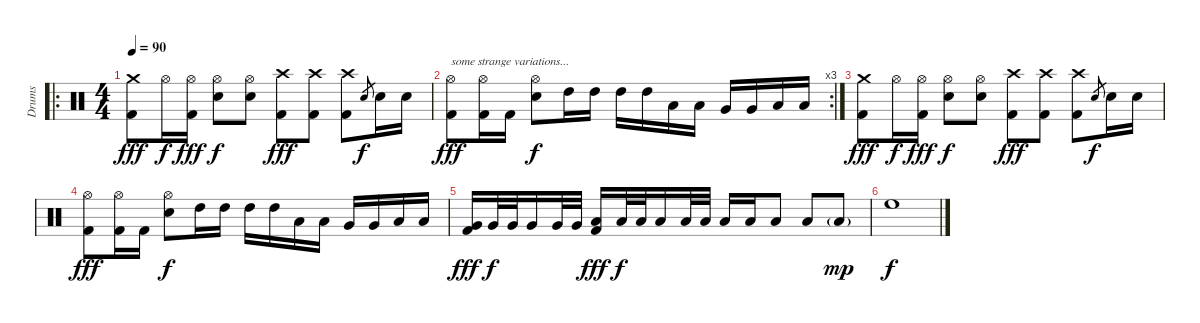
\track ("Drums" "Drums") {instrument percussion}
\staff {score}
\articulation defaults
\ro
\ts (4 4)
\tempo 90
\clef neutral
\ks c
("Crash medium (hit)" "Kick (hit) 2").8{dy fff} "Hi-Hat (open)".16{dy f} ("Hi-Hat (open)" "Kick (hit) 2").16{dy fff} ("Hi-Hat (open)" "Electric Snare (hit)").8{dy f} ("Hi-Hat (open)" "Electric Snare (hit)").8 ("Crash high (hit)" "Kick (hit) 2").8{dy fff} ("Crash high (hit)" "Kick (hit) 2").8 ("Crash high (hit)" "Kick (hit) 2").8 "Electric Snare (hit)".8{gr dy f} "Electric Snare (hit)".16 "Electric Snare (hit)".16 |
\rc 3
("Hi-Hat (open)" "Kick (hit) 2").8{txt "some strange variations..." dy fff} ("Hi-Hat (open)" "Kick (hit) 2").16 "Kick (hit) 2".16 ("Hi-Hat (open)" "Electric Snare (hit)").8{dy f} "High Tom (hit)".16 "High Tom (hit)".16 "High Tom (hit)".16 "High Tom (hit)".16 "Low Tom (hit)".16 "Low Tom (hit)".16 "Very Low Tom (hit)".16 "Very Low Tom (hit)".16 "Low Floor Tom (hit)".16 "Low Floor Tom (hit)".16 |
("Crash medium (hit)" "Kick (hit) 2").8{dy fff} "Hi-Hat (open)".16{dy f} ("Hi-Hat (open)" "Kick (hit) 2").16{dy fff} ("Hi-Hat (open)" "Electric Snare (hit)").8{dy f} ("Hi-Hat (open)" "Electric Snare (hit)").8 ("Crash high (hit)" "Kick (hit) 2").8{dy fff} ("Crash high (hit)" "Kick (hit) 2").8 ("Crash high (hit)" "Kick (hit) 2").8 "Electric Snare (hit)".8{gr dy f} "Electric Snare (hit)".16 "Electric Snare (hit)".16 |
("Hi-Hat (open)" "Kick (hit) 2").8{dy fff} ("Hi-Hat (open)" "Kick (hit) 2").16 "Kick (hit) 2".16 ("Hi-Hat (open)" "Electric Snare (hit)").8{dy f} "High Tom (hit)".16 "High Tom (hit)".16 "High Tom (hit)".16 "High Tom (hit)".16 "Low Tom (hit)".16 "Low Tom (hit)".16 "Very Low Tom (hit)".16 "Very Low Tom (hit)".16 "Low Floor Tom (hit)".16 "Low Floor Tom (hit)".16 |
("Very Low Tom (hit)" "Kick (hit) 2").16{dy fff} "Very Low Tom (hit)".32{dy f} "Very Low Tom (hit)".32 "Very Low Tom (hit)".16 "Very Low Tom (hit)".32 "Very Low Tom (hit)".32 ("Low Floor Tom (hit)" "Kick (hit) 2").16{dy fff} "Low Floor Tom (hit)".32{dy f} "Low Floor Tom (hit)".32 "Low Floor Tom (hit)".16 "Low Floor Tom (hit)".32 "Low Floor Tom (hit)".32 "Low Floor Tom (hit)".16 "Low Floor Tom (hit)".16 "Low Floor Tom (hit)".8 "Low Floor Tom (hit)".8 "Low Floor Tom (hit)"{g}.8{dy mp} |
"High Floor Tom (hit)".1{dy f}
